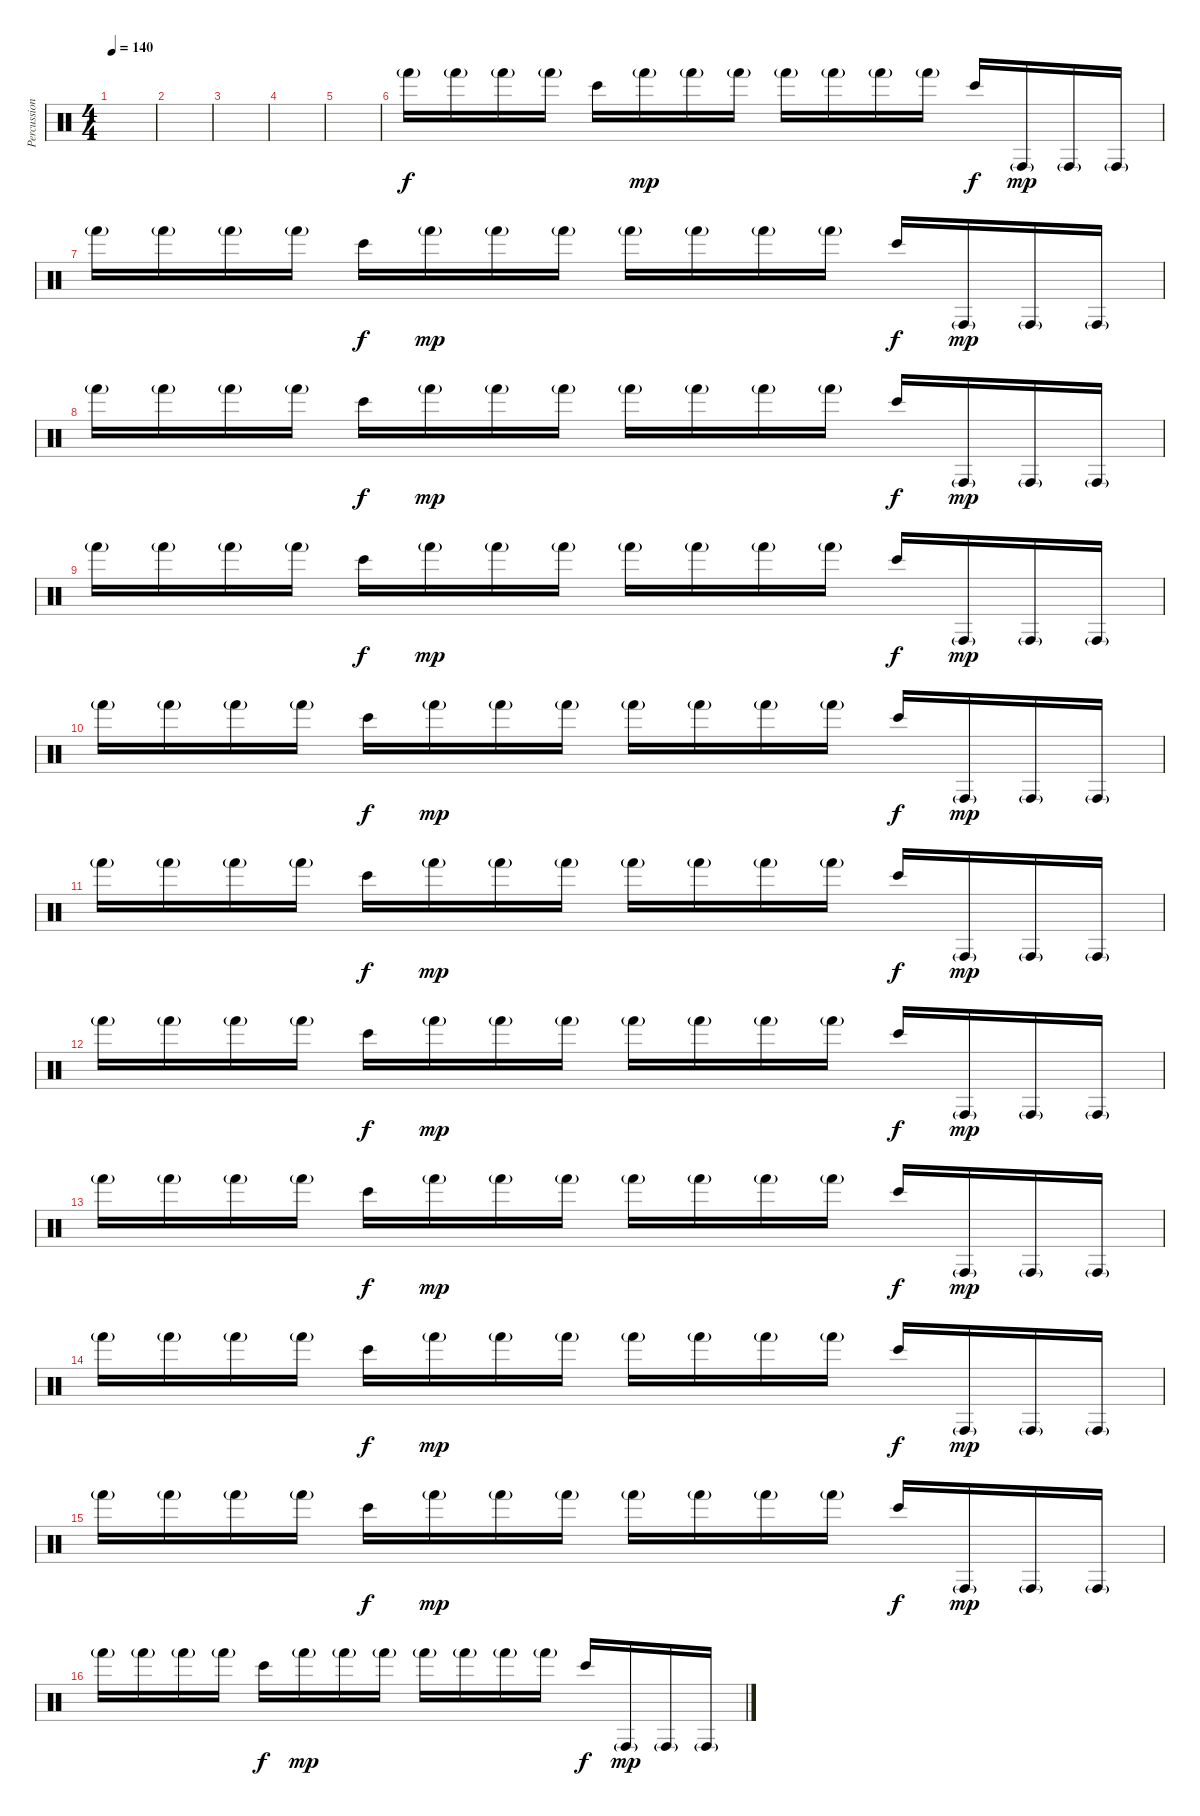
\track ("Percussions" "Percussion") {instrument percussion}
\staff {score}
\articulation defaults
\ts (4 4)
\tempo 140
\clef neutral
\ks c
|
|
|
|
|
"Hand (hit)"{g}.16 "Hand (hit)"{g}.16 "Hand (hit)"{g}.16 "Hand (hit)"{g}.16 "Bongo High (hit)".16{dy f} "Hand (hit)"{g}.16{dy mp} "Hand (hit)"{g}.16 "Hand (hit)"{g}.16 "Hand (hit)"{g}.16 "Hand (hit)"{g}.16 "Hand (hit)"{g}.16 "Hand (hit)"{g}.16 "Bongo High (hit)".16{dy f} "Conga high (hit)"{g}.16{dy mp} "Conga high (hit)"{g}.16 "Conga high (hit)"{g}.16 |
"Hand (hit)"{g}.16 "Hand (hit)"{g}.16 "Hand (hit)"{g}.16 "Hand (hit)"{g}.16 "Bongo High (hit)".16{dy f} "Hand (hit)"{g}.16{dy mp} "Hand (hit)"{g}.16 "Hand (hit)"{g}.16 "Hand (hit)"{g}.16 "Hand (hit)"{g}.16 "Hand (hit)"{g}.16 "Hand (hit)"{g}.16 "Bongo High (hit)".16{dy f} "Conga high (hit)"{g}.16{dy mp} "Conga high (hit)"{g}.16 "Conga high (hit)"{g}.16 |
"Hand (hit)"{g}.16 "Hand (hit)"{g}.16 "Hand (hit)"{g}.16 "Hand (hit)"{g}.16 "Bongo High (hit)".16{dy f} "Hand (hit)"{g}.16{dy mp} "Hand (hit)"{g}.16 "Hand (hit)"{g}.16 "Hand (hit)"{g}.16 "Hand (hit)"{g}.16 "Hand (hit)"{g}.16 "Hand (hit)"{g}.16 "Bongo High (hit)".16{dy f} "Conga high (hit)"{g}.16{dy mp} "Conga high (hit)"{g}.16 "Conga high (hit)"{g}.16 |
"Hand (hit)"{g}.16 "Hand (hit)"{g}.16 "Hand (hit)"{g}.16 "Hand (hit)"{g}.16 "Bongo High (hit)".16{dy f} "Hand (hit)"{g}.16{dy mp} "Hand (hit)"{g}.16 "Hand (hit)"{g}.16 "Hand (hit)"{g}.16 "Hand (hit)"{g}.16 "Hand (hit)"{g}.16 "Hand (hit)"{g}.16 "Bongo High (hit)".16{dy f} "Conga high (hit)"{g}.16{dy mp} "Conga high (hit)"{g}.16 "Conga high (hit)"{g}.16 |
"Hand (hit)"{g}.16 "Hand (hit)"{g}.16 "Hand (hit)"{g}.16 "Hand (hit)"{g}.16 "Bongo High (hit)".16{dy f} "Hand (hit)"{g}.16{dy mp} "Hand (hit)"{g}.16 "Hand (hit)"{g}.16 "Hand (hit)"{g}.16 "Hand (hit)"{g}.16 "Hand (hit)"{g}.16 "Hand (hit)"{g}.16 "Bongo High (hit)".16{dy f} "Conga high (hit)"{g}.16{dy mp} "Conga high (hit)"{g}.16 "Conga high (hit)"{g}.16 |
"Hand (hit)"{g}.16 "Hand (hit)"{g}.16 "Hand (hit)"{g}.16 "Hand (hit)"{g}.16 "Bongo High (hit)".16{dy f} "Hand (hit)"{g}.16{dy mp} "Hand (hit)"{g}.16 "Hand (hit)"{g}.16 "Hand (hit)"{g}.16 "Hand (hit)"{g}.16 "Hand (hit)"{g}.16 "Hand (hit)"{g}.16 "Bongo High (hit)".16{dy f} "Conga high (hit)"{g}.16{dy mp} "Conga high (hit)"{g}.16 "Conga high (hit)"{g}.16 |
"Hand (hit)"{g}.16 "Hand (hit)"{g}.16 "Hand (hit)"{g}.16 "Hand (hit)"{g}.16 "Bongo High (hit)".16{dy f} "Hand (hit)"{g}.16{dy mp} "Hand (hit)"{g}.16 "Hand (hit)"{g}.16 "Hand (hit)"{g}.16 "Hand (hit)"{g}.16 "Hand (hit)"{g}.16 "Hand (hit)"{g}.16 "Bongo High (hit)".16{dy f} "Conga high (hit)"{g}.16{dy mp} "Conga high (hit)"{g}.16 "Conga high (hit)"{g}.16 |
"Hand (hit)"{g}.16 "Hand (hit)"{g}.16 "Hand (hit)"{g}.16 "Hand (hit)"{g}.16 "Bongo High (hit)".16{dy f} "Hand (hit)"{g}.16{dy mp} "Hand (hit)"{g}.16 "Hand (hit)"{g}.16 "Hand (hit)"{g}.16 "Hand (hit)"{g}.16 "Hand (hit)"{g}.16 "Hand (hit)"{g}.16 "Bongo High (hit)".16{dy f} "Conga high (hit)"{g}.16{dy mp} "Conga high (hit)"{g}.16 "Conga high (hit)"{g}.16 |
"Hand (hit)"{g}.16 "Hand (hit)"{g}.16 "Hand (hit)"{g}.16 "Hand (hit)"{g}.16 "Bongo High (hit)".16{dy f} "Hand (hit)"{g}.16{dy mp} "Hand (hit)"{g}.16 "Hand (hit)"{g}.16 "Hand (hit)"{g}.16 "Hand (hit)"{g}.16 "Hand (hit)"{g}.16 "Hand (hit)"{g}.16 "Bongo High (hit)".16{dy f} "Conga high (hit)"{g}.16{dy mp} "Conga high (hit)"{g}.16 "Conga high (hit)"{g}.16 |
"Hand (hit)"{g}.16 "Hand (hit)"{g}.16 "Hand (hit)"{g}.16 "Hand (hit)"{g}.16 "Bongo High (hit)".16{dy f} "Hand (hit)"{g}.16{dy mp} "Hand (hit)"{g}.16 "Hand (hit)"{g}.16 "Hand (hit)"{g}.16 "Hand (hit)"{g}.16 "Hand (hit)"{g}.16 "Hand (hit)"{g}.16 "Bongo High (hit)".16{dy f} "Conga high (hit)"{g}.16{dy mp} "Conga high (hit)"{g}.16 "Conga high (hit)"{g}.16 |
"Hand (hit)"{g}.16 "Hand (hit)"{g}.16 "Hand (hit)"{g}.16 "Hand (hit)"{g}.16 "Bongo High (hit)".16{dy f} "Hand (hit)"{g}.16{dy mp} "Hand (hit)"{g}.16 "Hand (hit)"{g}.16 "Hand (hit)"{g}.16 "Hand (hit)"{g}.16 "Hand (hit)"{g}.16 "Hand (hit)"{g}.16 "Bongo High (hit)".16{dy f} "Conga high (hit)"{g}.16{dy mp} "Conga high (hit)"{g}.16 "Conga high (hit)"{g}.16
